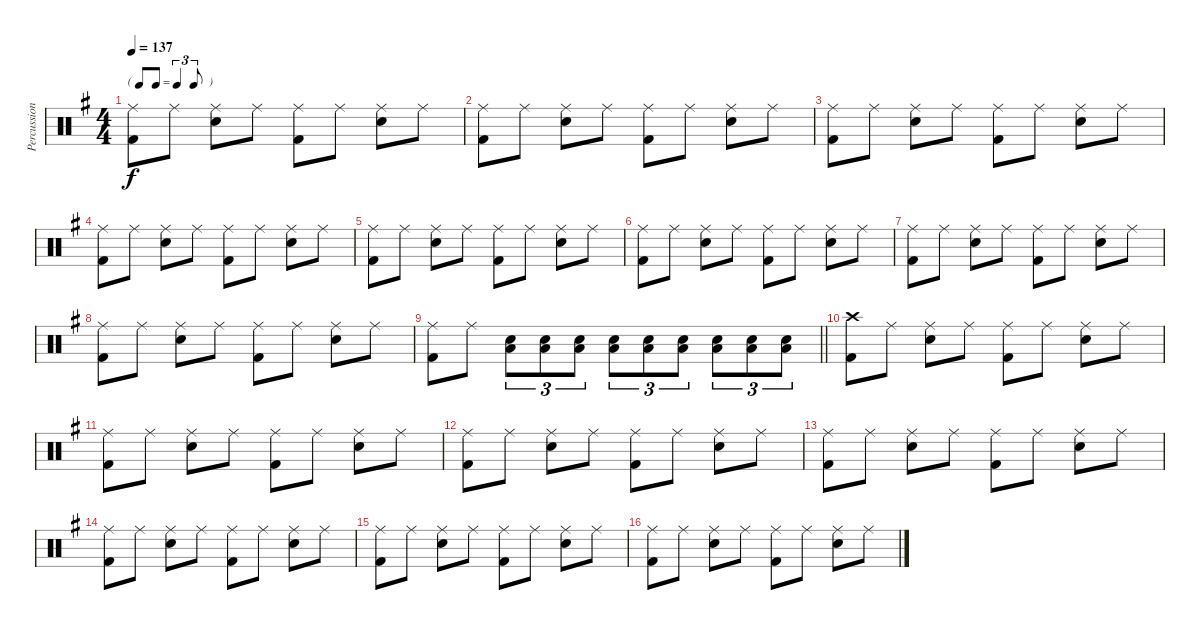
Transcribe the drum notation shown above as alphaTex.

\track ("Percussion" "Percussion") {instrument percussion}
\staff {score}
\articulation defaults
\ts (4 4)
\tf triplet8th
\tempo 137
\clef neutral
\ks g
("Ride (middle)" "Kick (hit) 2").8{dy f} "Ride (middle)".8 ("Ride (middle)" "Snare (hit) 2").8 "Ride (middle)".8 ("Ride (middle)" "Kick (hit) 2").8 "Ride (middle)".8 ("Ride (middle)" "Snare (hit) 2").8 "Ride (middle)".8 |
("Ride (middle)" "Kick (hit) 2").8 "Ride (middle)".8 ("Ride (middle)" "Snare (hit) 2").8 "Ride (middle)".8 ("Ride (middle)" "Kick (hit) 2").8 "Ride (middle)".8 ("Ride (middle)" "Snare (hit) 2").8 "Ride (middle)".8 |
("Ride (middle)" "Kick (hit) 2").8 "Ride (middle)".8 ("Ride (middle)" "Snare (hit) 2").8 "Ride (middle)".8 ("Ride (middle)" "Kick (hit) 2").8 "Ride (middle)".8 ("Ride (middle)" "Snare (hit) 2").8 "Ride (middle)".8 |
("Ride (middle)" "Kick (hit) 2").8 "Ride (middle)".8 ("Ride (middle)" "Snare (hit) 2").8 "Ride (middle)".8 ("Ride (middle)" "Kick (hit) 2").8 "Ride (middle)".8 ("Ride (middle)" "Snare (hit) 2").8 "Ride (middle)".8 |
("Ride (middle)" "Kick (hit) 2").8 "Ride (middle)".8 ("Ride (middle)" "Snare (hit) 2").8 "Ride (middle)".8 ("Ride (middle)" "Kick (hit) 2").8 "Ride (middle)".8 ("Ride (middle)" "Snare (hit) 2").8 "Ride (middle)".8 |
("Ride (middle)" "Kick (hit) 2").8 "Ride (middle)".8 ("Ride (middle)" "Snare (hit) 2").8 "Ride (middle)".8 ("Ride (middle)" "Kick (hit) 2").8 "Ride (middle)".8 ("Ride (middle)" "Snare (hit) 2").8 "Ride (middle)".8 |
("Ride (middle)" "Kick (hit) 2").8 "Ride (middle)".8 ("Ride (middle)" "Snare (hit) 2").8 "Ride (middle)".8 ("Ride (middle)" "Kick (hit) 2").8 "Ride (middle)".8 ("Ride (middle)" "Snare (hit) 2").8 "Ride (middle)".8 |
("Ride (middle)" "Kick (hit) 2").8 "Ride (middle)".8 ("Ride (middle)" "Snare (hit) 2").8 "Ride (middle)".8 ("Ride (middle)" "Kick (hit) 2").8 "Ride (middle)".8 ("Ride (middle)" "Snare (hit) 2").8 "Ride (middle)".8 |
\barLineRight lightlight
("Ride (middle)" "Kick (hit) 2").8 "Ride (middle)".8 ("Snare (hit) 2" "Low Floor Tom (hit)").8{tu (3 2)} ("Snare (hit) 2" "Low Floor Tom (hit)").8{tu (3 2)} ("Snare (hit) 2" "Low Floor Tom (hit)").8{tu (3 2)} ("Snare (hit) 2" "Low Floor Tom (hit)").8{tu (3 2)} ("Snare (hit) 2" "Low Floor Tom (hit)").8{tu (3 2)} ("Snare (hit) 2" "Low Floor Tom (hit)").8{tu (3 2)} ("Snare (hit) 2" "Low Floor Tom (hit)").8{tu (3 2)} ("Snare (hit) 2" "Low Floor Tom (hit)").8{tu (3 2)} ("Snare (hit) 2" "Low Floor Tom (hit)").8{tu (3 2)} |
("Crash high (hit)" "Kick (hit) 2").8 "Ride (middle)".8 ("Ride (middle)" "Snare (hit) 2").8 "Ride (middle)".8 ("Ride (middle)" "Kick (hit) 2").8 "Ride (middle)".8 ("Ride (middle)" "Snare (hit) 2").8 "Ride (middle)".8 |
("Ride (middle)" "Kick (hit) 2").8 "Ride (middle)".8 ("Ride (middle)" "Snare (hit) 2").8 "Ride (middle)".8 ("Ride (middle)" "Kick (hit) 2").8 "Ride (middle)".8 ("Ride (middle)" "Snare (hit) 2").8 "Ride (middle)".8 |
("Ride (middle)" "Kick (hit) 2").8 "Ride (middle)".8 ("Ride (middle)" "Snare (hit) 2").8 "Ride (middle)".8 ("Ride (middle)" "Kick (hit) 2").8 "Ride (middle)".8 ("Ride (middle)" "Snare (hit) 2").8 "Ride (middle)".8 |
("Ride (middle)" "Kick (hit) 2").8 "Ride (middle)".8 ("Ride (middle)" "Snare (hit) 2").8 "Ride (middle)".8 ("Ride (middle)" "Kick (hit) 2").8 "Ride (middle)".8 ("Ride (middle)" "Snare (hit) 2").8 "Ride (middle)".8 |
("Ride (middle)" "Kick (hit) 2").8 "Ride (middle)".8 ("Ride (middle)" "Snare (hit) 2").8 "Ride (middle)".8 ("Ride (middle)" "Kick (hit) 2").8 "Ride (middle)".8 ("Ride (middle)" "Snare (hit) 2").8 "Ride (middle)".8 |
("Ride (middle)" "Kick (hit) 2").8 "Ride (middle)".8 ("Ride (middle)" "Snare (hit) 2").8 "Ride (middle)".8 ("Ride (middle)" "Kick (hit) 2").8 "Ride (middle)".8 ("Ride (middle)" "Snare (hit) 2").8 "Ride (middle)".8 |
("Ride (middle)" "Kick (hit) 2").8 "Ride (middle)".8 ("Ride (middle)" "Snare (hit) 2").8 "Ride (middle)".8 ("Ride (middle)" "Kick (hit) 2").8 "Ride (middle)".8 ("Ride (middle)" "Snare (hit) 2").8 "Ride (middle)".8
